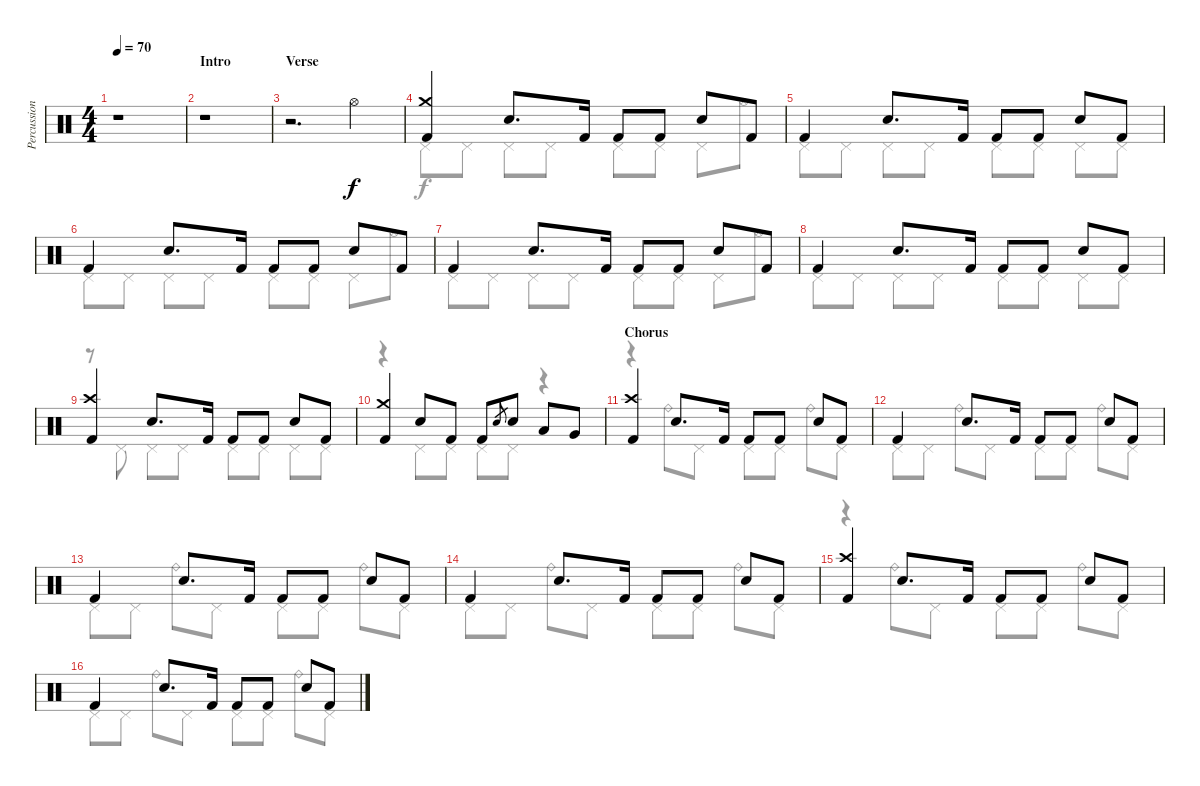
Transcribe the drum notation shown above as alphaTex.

\track ("Percussion" "Percussion") {instrument percussion}
\staff {score}
\articulation defaults
\voice
\ts (4 4)
\tempo 70
\clef neutral
\ks c
r.1{dy f} |
\section ("" "Intro")
r.1 |
\section ("" "Verse")
r.2{d} "Hi-Hat (open)".4 |
("Crash medium (hit)" "Kick (hit) 2").4 "Snare (hit) 2".8{d} "Kick (hit) 2".16 "Kick (hit) 2".8 "Kick (hit) 2".8 "Snare (hit) 2".8 "Kick (hit) 2".8 |
"Kick (hit) 2".4 "Snare (hit) 2".8{d} "Kick (hit) 2".16 "Kick (hit) 2".8 "Kick (hit) 2".8 "Snare (hit) 2".8 "Kick (hit) 2".8 |
"Kick (hit) 2".4 "Snare (hit) 2".8{d} "Kick (hit) 2".16 "Kick (hit) 2".8 "Kick (hit) 2".8 "Snare (hit) 2".8 "Kick (hit) 2".8 |
"Kick (hit) 2".4 "Snare (hit) 2".8{d} "Kick (hit) 2".16 "Kick (hit) 2".8 "Kick (hit) 2".8 "Snare (hit) 2".8 "Kick (hit) 2".8 |
"Kick (hit) 2".4 "Snare (hit) 2".8{d} "Kick (hit) 2".16 "Kick (hit) 2".8 "Kick (hit) 2".8 "Snare (hit) 2".8 "Kick (hit) 2".8 |
("Crash high (hit)" "Kick (hit) 2").4 "Snare (hit) 2".8{d} "Kick (hit) 2".16 "Kick (hit) 2".8 "Kick (hit) 2".8 "Snare (hit) 2".8 "Kick (hit) 2".8 |
("Crash medium (hit)" "Kick (hit) 2").4 "Snare (hit) 2".8 "Kick (hit) 2".8 "Kick (hit) 2".8 "Snare (hit) 2"{h}.8{gr} "Snare (hit) 2".8 "Low Tom (hit)".8 "Very Low Tom (hit)".8 |
\section ("" "Chorus")
("Crash high (hit)" "Kick (hit) 2").4 "Snare (hit) 2".8{d} "Kick (hit) 2".16 "Kick (hit) 2".8 "Kick (hit) 2".8 "Snare (hit) 2".8 "Kick (hit) 2".8 |
"Kick (hit) 2".4 "Snare (hit) 2".8{d} "Kick (hit) 2".16 "Kick (hit) 2".8 "Kick (hit) 2".8 "Snare (hit) 2".8 "Kick (hit) 2".8 |
"Kick (hit) 2".4 "Snare (hit) 2".8{d} "Kick (hit) 2".16 "Kick (hit) 2".8 "Kick (hit) 2".8 "Snare (hit) 2".8 "Kick (hit) 2".8 |
"Kick (hit) 2".4 "Snare (hit) 2".8{d} "Kick (hit) 2".16 "Kick (hit) 2".8 "Kick (hit) 2".8 "Snare (hit) 2".8 "Kick (hit) 2".8 |
("Crash high (hit)" "Kick (hit) 2").4 "Snare (hit) 2".8{d} "Kick (hit) 2".16 "Kick (hit) 2".8 "Kick (hit) 2".8 "Snare (hit) 2".8 "Kick (hit) 2".8 |
"Kick (hit) 2".4 "Snare (hit) 2".8{d} "Kick (hit) 2".16 "Kick (hit) 2".8 "Kick (hit) 2".8 "Snare (hit) 2".8 "Kick (hit) 2".8
\voice
\clef neutral
\ottava regular
\simile none
\ks c
|
|
|
"Pedal Hi-Hat (hit)".8 "Pedal Hi-Hat (hit)".8 "Pedal Hi-Hat (hit)".8 "Pedal Hi-Hat (hit)".8 "Pedal Hi-Hat (hit)".8 "Pedal Hi-Hat (hit)".8 "Pedal Hi-Hat (hit)".8 "Hi-Hat (open)".8 |
"Pedal Hi-Hat (hit)".8 "Pedal Hi-Hat (hit)".8 "Pedal Hi-Hat (hit)".8 "Pedal Hi-Hat (hit)".8 "Pedal Hi-Hat (hit)".8 "Pedal Hi-Hat (hit)".8 "Pedal Hi-Hat (hit)".8 "Pedal Hi-Hat (hit)".8 |
"Pedal Hi-Hat (hit)".8 "Pedal Hi-Hat (hit)".8 "Pedal Hi-Hat (hit)".8 "Pedal Hi-Hat (hit)".8 "Pedal Hi-Hat (hit)".8 "Pedal Hi-Hat (hit)".8 "Pedal Hi-Hat (hit)".8 "Hi-Hat (open)".8 |
"Pedal Hi-Hat (hit)".8 "Pedal Hi-Hat (hit)".8 "Pedal Hi-Hat (hit)".8 "Pedal Hi-Hat (hit)".8 "Pedal Hi-Hat (hit)".8 "Pedal Hi-Hat (hit)".8 "Pedal Hi-Hat (hit)".8 "Hi-Hat (open)".8 |
"Pedal Hi-Hat (hit)".8 "Pedal Hi-Hat (hit)".8 "Pedal Hi-Hat (hit)".8 "Pedal Hi-Hat (hit)".8 "Pedal Hi-Hat (hit)".8 "Pedal Hi-Hat (hit)".8 "Pedal Hi-Hat (hit)".8 "Pedal Hi-Hat (hit)".8 |
r.8 "Pedal Hi-Hat (hit)".8 "Pedal Hi-Hat (hit)".8 "Pedal Hi-Hat (hit)".8 "Pedal Hi-Hat (hit)".8 "Pedal Hi-Hat (hit)".8 "Pedal Hi-Hat (hit)".8 "Pedal Hi-Hat (hit)".8 |
r.4 "Pedal Hi-Hat (hit)".8 "Pedal Hi-Hat (hit)".8 "Pedal Hi-Hat (hit)".8 "Pedal Hi-Hat (hit)".8 r.4 |
r.4 "Ride (bell)".8 "Pedal Hi-Hat (hit)".8 "Pedal Hi-Hat (hit)".8 "Pedal Hi-Hat (hit)".8 "Ride (bell)".8 "Pedal Hi-Hat (hit)".8 |
"Pedal Hi-Hat (hit)".8 "Pedal Hi-Hat (hit)".8 "Ride (bell)".8 "Pedal Hi-Hat (hit)".8 "Pedal Hi-Hat (hit)".8 "Pedal Hi-Hat (hit)".8 "Ride (bell)".8 "Pedal Hi-Hat (hit)".8 |
"Pedal Hi-Hat (hit)".8 "Pedal Hi-Hat (hit)".8 "Ride (bell)".8 "Pedal Hi-Hat (hit)".8 "Pedal Hi-Hat (hit)".8 "Pedal Hi-Hat (hit)".8 "Ride (bell)".8 "Pedal Hi-Hat (hit)".8 |
"Pedal Hi-Hat (hit)".8 "Pedal Hi-Hat (hit)".8 "Ride (bell)".8 "Pedal Hi-Hat (hit)".8 "Pedal Hi-Hat (hit)".8 "Pedal Hi-Hat (hit)".8 "Ride (bell)".8 "Pedal Hi-Hat (hit)".8 |
r.4 "Ride (bell)".8 "Pedal Hi-Hat (hit)".8 "Pedal Hi-Hat (hit)".8 "Pedal Hi-Hat (hit)".8 "Ride (bell)".8 "Pedal Hi-Hat (hit)".8 |
"Pedal Hi-Hat (hit)".8 "Pedal Hi-Hat (hit)".8 "Ride (bell)".8 "Pedal Hi-Hat (hit)".8 "Pedal Hi-Hat (hit)".8 "Pedal Hi-Hat (hit)".8 "Ride (bell)".8 "Pedal Hi-Hat (hit)".8
